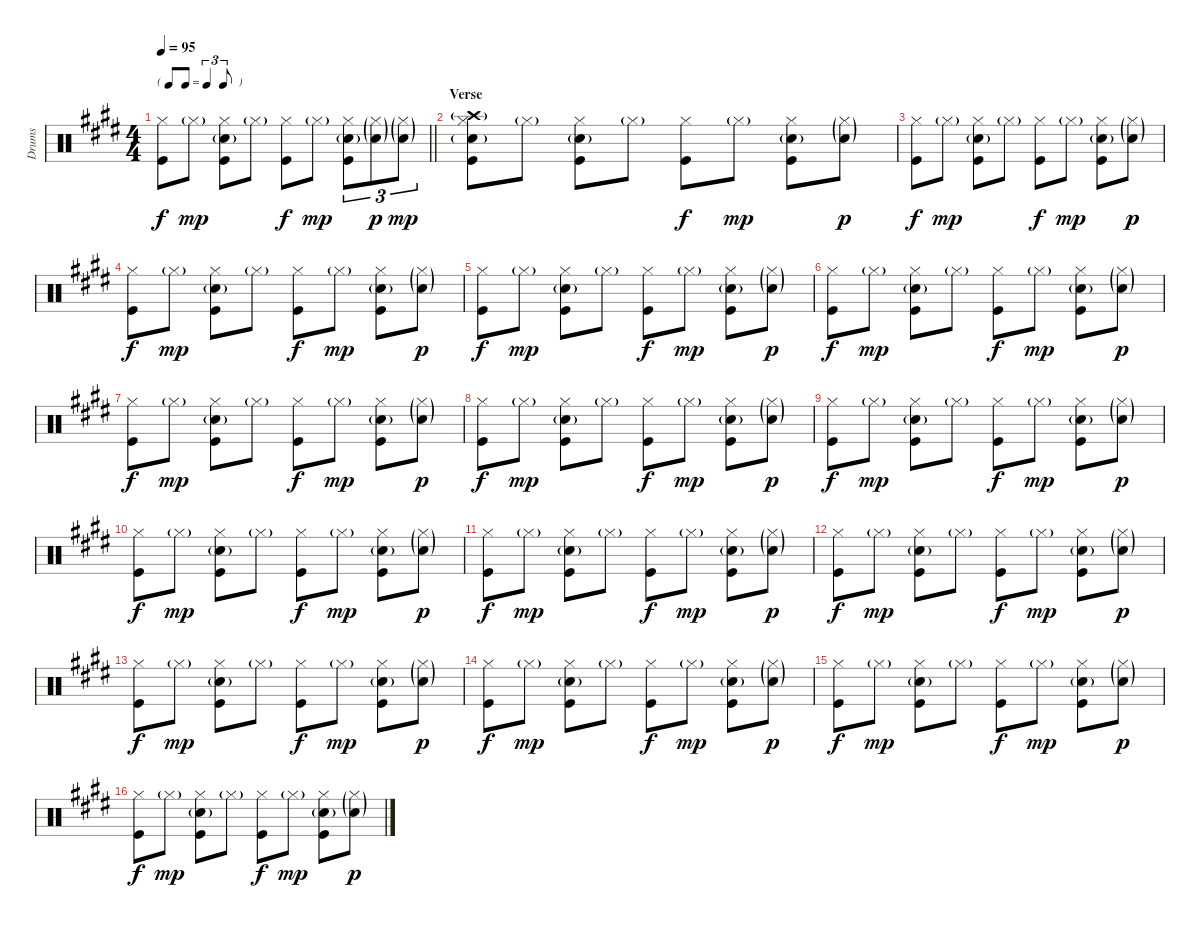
\track ("Drums" "Drums") {instrument percussion}
\staff {score}
\articulation defaults
\ts (4 4)
\tf triplet8th
\tempo 95
\clef neutral
\barLineRight lightlight
\ks e
("Hi-Hat (closed)" "Kick (hit)").8{dy f} "Hi-Hat (closed)"{g}.8{dy mp} ("Hi-Hat (closed)" "Snare (hit) 2"{g} "Kick (hit)").8 "Hi-Hat (closed)"{g}.8 ("Hi-Hat (closed)" "Kick (hit)").8{dy f} "Hi-Hat (closed)"{g}.8{dy mp} ("Hi-Hat (closed)" "Snare (hit) 2"{g} "Kick (hit)").8{tu (3 2)} ("Hi-Hat (closed)"{g} "Snare (hit) 2"{g}).8{tu (3 2) dy p} ("Hi-Hat (closed)"{g} "Snare (hit) 2"{g}).8{tu (3 2) dy mp} |
\section ("" "Verse")
("Hi-Hat (closed)" "Crash high (hit)"{g} "Snare (hit) 2"{g} "Kick (hit)").8 "Hi-Hat (closed)"{g}.8 ("Hi-Hat (closed)" "Snare (hit) 2"{g} "Kick (hit)").8 "Hi-Hat (closed)"{g}.8 ("Hi-Hat (closed)" "Kick (hit)").8{dy f} "Hi-Hat (closed)"{g}.8{dy mp} ("Hi-Hat (closed)" "Snare (hit) 2"{g} "Kick (hit)").8 ("Hi-Hat (closed)"{g} "Snare (hit) 2"{g}).8{dy p} |
("Hi-Hat (closed)" "Kick (hit)").8{dy f} "Hi-Hat (closed)"{g}.8{dy mp} ("Hi-Hat (closed)" "Snare (hit) 2"{g} "Kick (hit)").8 "Hi-Hat (closed)"{g}.8 ("Hi-Hat (closed)" "Kick (hit)").8{dy f} "Hi-Hat (closed)"{g}.8{dy mp} ("Hi-Hat (closed)" "Snare (hit) 2"{g} "Kick (hit)").8 ("Hi-Hat (closed)"{g} "Snare (hit) 2"{g}).8{dy p} |
("Hi-Hat (closed)" "Kick (hit)").8{dy f} "Hi-Hat (closed)"{g}.8{dy mp} ("Hi-Hat (closed)" "Snare (hit) 2"{g} "Kick (hit)").8 "Hi-Hat (closed)"{g}.8 ("Hi-Hat (closed)" "Kick (hit)").8{dy f} "Hi-Hat (closed)"{g}.8{dy mp} ("Hi-Hat (closed)" "Snare (hit) 2"{g} "Kick (hit)").8 ("Hi-Hat (closed)"{g} "Snare (hit) 2"{g}).8{dy p} |
("Hi-Hat (closed)" "Kick (hit)").8{dy f} "Hi-Hat (closed)"{g}.8{dy mp} ("Hi-Hat (closed)" "Snare (hit) 2"{g} "Kick (hit)").8 "Hi-Hat (closed)"{g}.8 ("Hi-Hat (closed)" "Kick (hit)").8{dy f} "Hi-Hat (closed)"{g}.8{dy mp} ("Hi-Hat (closed)" "Snare (hit) 2"{g} "Kick (hit)").8 ("Hi-Hat (closed)"{g} "Snare (hit) 2"{g}).8{dy p} |
("Hi-Hat (closed)" "Kick (hit)").8{dy f} "Hi-Hat (closed)"{g}.8{dy mp} ("Hi-Hat (closed)" "Snare (hit) 2"{g} "Kick (hit)").8 "Hi-Hat (closed)"{g}.8 ("Hi-Hat (closed)" "Kick (hit)").8{dy f} "Hi-Hat (closed)"{g}.8{dy mp} ("Hi-Hat (closed)" "Snare (hit) 2"{g} "Kick (hit)").8 ("Hi-Hat (closed)"{g} "Snare (hit) 2"{g}).8{dy p} |
("Hi-Hat (closed)" "Kick (hit)").8{dy f} "Hi-Hat (closed)"{g}.8{dy mp} ("Hi-Hat (closed)" "Snare (hit) 2"{g} "Kick (hit)").8 "Hi-Hat (closed)"{g}.8 ("Hi-Hat (closed)" "Kick (hit)").8{dy f} "Hi-Hat (closed)"{g}.8{dy mp} ("Hi-Hat (closed)" "Snare (hit) 2"{g} "Kick (hit)").8 ("Hi-Hat (closed)"{g} "Snare (hit) 2"{g}).8{dy p} |
("Hi-Hat (closed)" "Kick (hit)").8{dy f} "Hi-Hat (closed)"{g}.8{dy mp} ("Hi-Hat (closed)" "Snare (hit) 2"{g} "Kick (hit)").8 "Hi-Hat (closed)"{g}.8 ("Hi-Hat (closed)" "Kick (hit)").8{dy f} "Hi-Hat (closed)"{g}.8{dy mp} ("Hi-Hat (closed)" "Snare (hit) 2"{g} "Kick (hit)").8 ("Hi-Hat (closed)"{g} "Snare (hit) 2"{g}).8{dy p} |
("Hi-Hat (closed)" "Kick (hit)").8{dy f} "Hi-Hat (closed)"{g}.8{dy mp} ("Hi-Hat (closed)" "Snare (hit) 2"{g} "Kick (hit)").8 "Hi-Hat (closed)"{g}.8 ("Hi-Hat (closed)" "Kick (hit)").8{dy f} "Hi-Hat (closed)"{g}.8{dy mp} ("Hi-Hat (closed)" "Snare (hit) 2"{g} "Kick (hit)").8 ("Hi-Hat (closed)"{g} "Snare (hit) 2"{g}).8{dy p} |
("Hi-Hat (closed)" "Kick (hit)").8{dy f} "Hi-Hat (closed)"{g}.8{dy mp} ("Hi-Hat (closed)" "Snare (hit) 2"{g} "Kick (hit)").8 "Hi-Hat (closed)"{g}.8 ("Hi-Hat (closed)" "Kick (hit)").8{dy f} "Hi-Hat (closed)"{g}.8{dy mp} ("Hi-Hat (closed)" "Snare (hit) 2"{g} "Kick (hit)").8 ("Hi-Hat (closed)"{g} "Snare (hit) 2"{g}).8{dy p} |
("Hi-Hat (closed)" "Kick (hit)").8{dy f} "Hi-Hat (closed)"{g}.8{dy mp} ("Hi-Hat (closed)" "Snare (hit) 2"{g} "Kick (hit)").8 "Hi-Hat (closed)"{g}.8 ("Hi-Hat (closed)" "Kick (hit)").8{dy f} "Hi-Hat (closed)"{g}.8{dy mp} ("Hi-Hat (closed)" "Snare (hit) 2"{g} "Kick (hit)").8 ("Hi-Hat (closed)"{g} "Snare (hit) 2"{g}).8{dy p} |
("Hi-Hat (closed)" "Kick (hit)").8{dy f} "Hi-Hat (closed)"{g}.8{dy mp} ("Hi-Hat (closed)" "Snare (hit) 2"{g} "Kick (hit)").8 "Hi-Hat (closed)"{g}.8 ("Hi-Hat (closed)" "Kick (hit)").8{dy f} "Hi-Hat (closed)"{g}.8{dy mp} ("Hi-Hat (closed)" "Snare (hit) 2"{g} "Kick (hit)").8 ("Hi-Hat (closed)"{g} "Snare (hit) 2"{g}).8{dy p} |
("Hi-Hat (closed)" "Kick (hit)").8{dy f} "Hi-Hat (closed)"{g}.8{dy mp} ("Hi-Hat (closed)" "Snare (hit) 2"{g} "Kick (hit)").8 "Hi-Hat (closed)"{g}.8 ("Hi-Hat (closed)" "Kick (hit)").8{dy f} "Hi-Hat (closed)"{g}.8{dy mp} ("Hi-Hat (closed)" "Snare (hit) 2"{g} "Kick (hit)").8 ("Hi-Hat (closed)"{g} "Snare (hit) 2"{g}).8{dy p} |
("Hi-Hat (closed)" "Kick (hit)").8{dy f} "Hi-Hat (closed)"{g}.8{dy mp} ("Hi-Hat (closed)" "Snare (hit) 2"{g} "Kick (hit)").8 "Hi-Hat (closed)"{g}.8 ("Hi-Hat (closed)" "Kick (hit)").8{dy f} "Hi-Hat (closed)"{g}.8{dy mp} ("Hi-Hat (closed)" "Snare (hit) 2"{g} "Kick (hit)").8 ("Hi-Hat (closed)"{g} "Snare (hit) 2"{g}).8{dy p} |
("Hi-Hat (closed)" "Kick (hit)").8{dy f} "Hi-Hat (closed)"{g}.8{dy mp} ("Hi-Hat (closed)" "Snare (hit) 2"{g} "Kick (hit)").8 "Hi-Hat (closed)"{g}.8 ("Hi-Hat (closed)" "Kick (hit)").8{dy f} "Hi-Hat (closed)"{g}.8{dy mp} ("Hi-Hat (closed)" "Snare (hit) 2"{g} "Kick (hit)").8 ("Hi-Hat (closed)"{g} "Snare (hit) 2"{g}).8{dy p} |
("Hi-Hat (closed)" "Kick (hit)").8{dy f} "Hi-Hat (closed)"{g}.8{dy mp} ("Hi-Hat (closed)" "Snare (hit) 2"{g} "Kick (hit)").8 "Hi-Hat (closed)"{g}.8 ("Hi-Hat (closed)" "Kick (hit)").8{dy f} "Hi-Hat (closed)"{g}.8{dy mp} ("Hi-Hat (closed)" "Snare (hit) 2"{g} "Kick (hit)").8 ("Hi-Hat (closed)"{g} "Snare (hit) 2"{g}).8{dy p}
